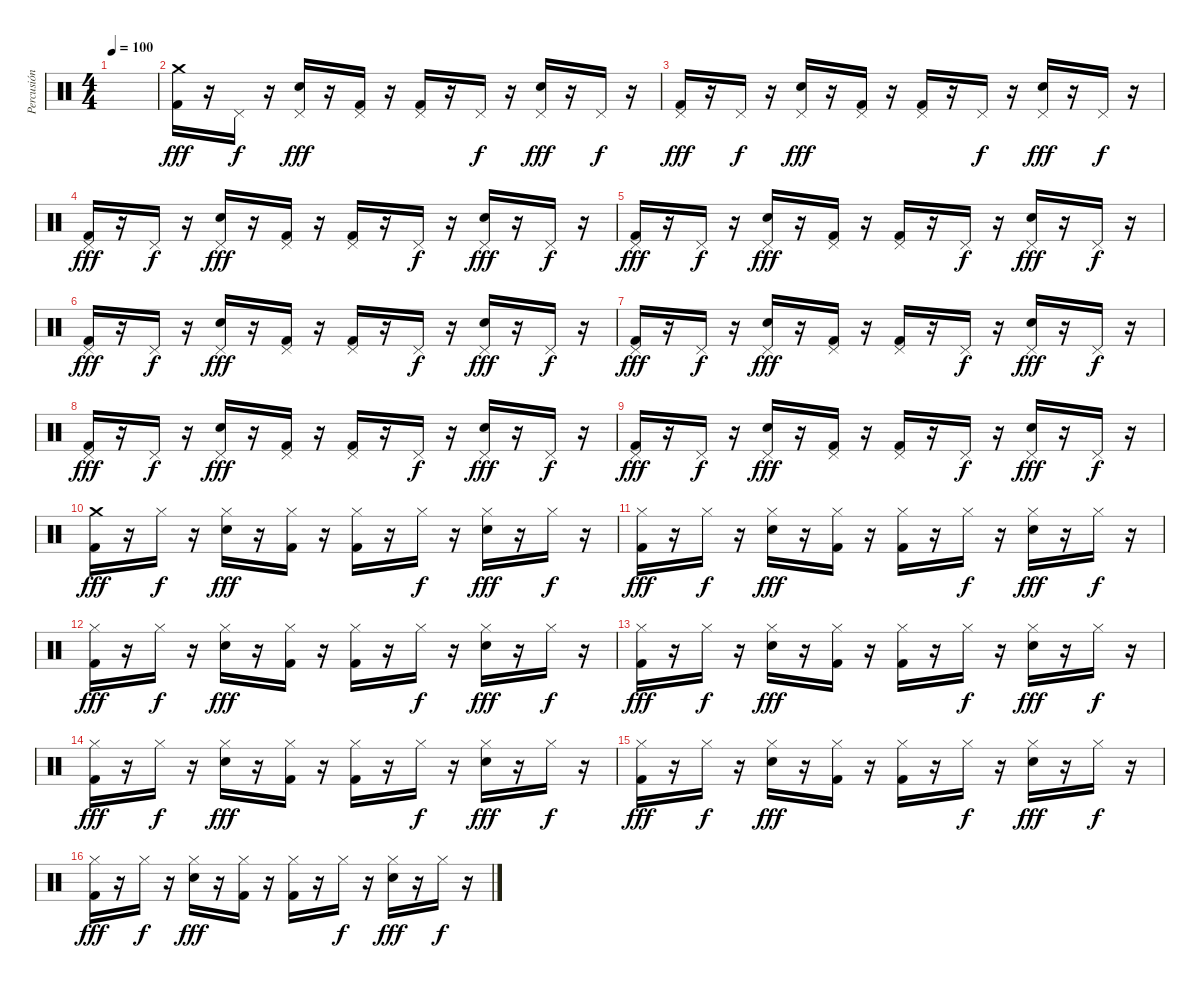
\track ("Percusión" "Percusión") {instrument percussion}
\staff {score}
\articulation defaults
\ts (4 4)
\tempo 100
\clef neutral
\ks c
|
("Crash medium (hit)" "Kick (hit) 2").16{dy fff} r.16 "Pedal Hi-Hat (hit)".16{dy f} r.16 ("Pedal Hi-Hat (hit)" "Electric Snare (hit)").16{dy fff} r.16 ("Pedal Hi-Hat (hit)" "Kick (hit) 2").16 r.16 ("Pedal Hi-Hat (hit)" "Kick (hit) 2").16 r.16 "Pedal Hi-Hat (hit)".16{dy f} r.16 ("Pedal Hi-Hat (hit)" "Electric Snare (hit)").16{dy fff} r.16 "Pedal Hi-Hat (hit)".16{dy f} r.16 |
("Pedal Hi-Hat (hit)" "Kick (hit) 2").16{dy fff} r.16 "Pedal Hi-Hat (hit)".16{dy f} r.16 ("Pedal Hi-Hat (hit)" "Electric Snare (hit)").16{dy fff} r.16 ("Pedal Hi-Hat (hit)" "Kick (hit) 2").16 r.16 ("Pedal Hi-Hat (hit)" "Kick (hit) 2").16 r.16 "Pedal Hi-Hat (hit)".16{dy f} r.16 ("Pedal Hi-Hat (hit)" "Electric Snare (hit)").16{dy fff} r.16 "Pedal Hi-Hat (hit)".16{dy f} r.16 |
("Pedal Hi-Hat (hit)" "Kick (hit) 2").16{dy fff} r.16 "Pedal Hi-Hat (hit)".16{dy f} r.16 ("Pedal Hi-Hat (hit)" "Electric Snare (hit)").16{dy fff} r.16 ("Pedal Hi-Hat (hit)" "Kick (hit) 2").16 r.16 ("Pedal Hi-Hat (hit)" "Kick (hit) 2").16 r.16 "Pedal Hi-Hat (hit)".16{dy f} r.16 ("Pedal Hi-Hat (hit)" "Electric Snare (hit)").16{dy fff} r.16 "Pedal Hi-Hat (hit)".16{dy f} r.16 |
("Pedal Hi-Hat (hit)" "Kick (hit) 2").16{dy fff} r.16 "Pedal Hi-Hat (hit)".16{dy f} r.16 ("Pedal Hi-Hat (hit)" "Electric Snare (hit)").16{dy fff} r.16 ("Pedal Hi-Hat (hit)" "Kick (hit) 2").16 r.16 ("Pedal Hi-Hat (hit)" "Kick (hit) 2").16 r.16 "Pedal Hi-Hat (hit)".16{dy f} r.16 ("Pedal Hi-Hat (hit)" "Electric Snare (hit)").16{dy fff} r.16 "Pedal Hi-Hat (hit)".16{dy f} r.16 |
("Pedal Hi-Hat (hit)" "Kick (hit) 2").16{dy fff} r.16 "Pedal Hi-Hat (hit)".16{dy f} r.16 ("Pedal Hi-Hat (hit)" "Electric Snare (hit)").16{dy fff} r.16 ("Pedal Hi-Hat (hit)" "Kick (hit) 2").16 r.16 ("Pedal Hi-Hat (hit)" "Kick (hit) 2").16 r.16 "Pedal Hi-Hat (hit)".16{dy f} r.16 ("Pedal Hi-Hat (hit)" "Electric Snare (hit)").16{dy fff} r.16 "Pedal Hi-Hat (hit)".16{dy f} r.16 |
("Pedal Hi-Hat (hit)" "Kick (hit) 2").16{dy fff} r.16 "Pedal Hi-Hat (hit)".16{dy f} r.16 ("Pedal Hi-Hat (hit)" "Electric Snare (hit)").16{dy fff} r.16 ("Pedal Hi-Hat (hit)" "Kick (hit) 2").16 r.16 ("Pedal Hi-Hat (hit)" "Kick (hit) 2").16 r.16 "Pedal Hi-Hat (hit)".16{dy f} r.16 ("Pedal Hi-Hat (hit)" "Electric Snare (hit)").16{dy fff} r.16 "Pedal Hi-Hat (hit)".16{dy f} r.16 |
("Pedal Hi-Hat (hit)" "Kick (hit) 2").16{dy fff} r.16 "Pedal Hi-Hat (hit)".16{dy f} r.16 ("Pedal Hi-Hat (hit)" "Electric Snare (hit)").16{dy fff} r.16 ("Pedal Hi-Hat (hit)" "Kick (hit) 2").16 r.16 ("Pedal Hi-Hat (hit)" "Kick (hit) 2").16 r.16 "Pedal Hi-Hat (hit)".16{dy f} r.16 ("Pedal Hi-Hat (hit)" "Electric Snare (hit)").16{dy fff} r.16 "Pedal Hi-Hat (hit)".16{dy f} r.16 |
("Pedal Hi-Hat (hit)" "Kick (hit) 2").16{dy fff} r.16 "Pedal Hi-Hat (hit)".16{dy f} r.16 ("Pedal Hi-Hat (hit)" "Electric Snare (hit)").16{dy fff} r.16 ("Pedal Hi-Hat (hit)" "Kick (hit) 2").16 r.16 ("Pedal Hi-Hat (hit)" "Kick (hit) 2").16 r.16 "Pedal Hi-Hat (hit)".16{dy f} r.16 ("Pedal Hi-Hat (hit)" "Electric Snare (hit)").16{dy fff} r.16 "Pedal Hi-Hat (hit)".16{dy f} r.16 |
("Crash medium (hit)" "Kick (hit) 2").16{dy fff} r.16 "Hi-Hat (closed)".16{dy f} r.16 ("Hi-Hat (closed)" "Electric Snare (hit)").16{dy fff} r.16 ("Hi-Hat (closed)" "Kick (hit) 2").16 r.16 ("Hi-Hat (closed)" "Kick (hit) 2").16 r.16 "Hi-Hat (closed)".16{dy f} r.16 ("Hi-Hat (closed)" "Electric Snare (hit)").16{dy fff} r.16 "Hi-Hat (closed)".16{dy f} r.16 |
("Hi-Hat (closed)" "Kick (hit) 2").16{dy fff} r.16 "Hi-Hat (closed)".16{dy f} r.16 ("Hi-Hat (closed)" "Electric Snare (hit)").16{dy fff} r.16 ("Hi-Hat (closed)" "Kick (hit) 2").16 r.16 ("Hi-Hat (closed)" "Kick (hit) 2").16 r.16 "Hi-Hat (closed)".16{dy f} r.16 ("Hi-Hat (closed)" "Electric Snare (hit)").16{dy fff} r.16 "Hi-Hat (closed)".16{dy f} r.16 |
("Hi-Hat (closed)" "Kick (hit) 2").16{dy fff} r.16 "Hi-Hat (closed)".16{dy f} r.16 ("Hi-Hat (closed)" "Electric Snare (hit)").16{dy fff} r.16 ("Hi-Hat (closed)" "Kick (hit) 2").16 r.16 ("Hi-Hat (closed)" "Kick (hit) 2").16 r.16 "Hi-Hat (closed)".16{dy f} r.16 ("Hi-Hat (closed)" "Electric Snare (hit)").16{dy fff} r.16 "Hi-Hat (closed)".16{dy f} r.16 |
("Hi-Hat (closed)" "Kick (hit) 2").16{dy fff} r.16 "Hi-Hat (closed)".16{dy f} r.16 ("Hi-Hat (closed)" "Electric Snare (hit)").16{dy fff} r.16 ("Hi-Hat (closed)" "Kick (hit) 2").16 r.16 ("Hi-Hat (closed)" "Kick (hit) 2").16 r.16 "Hi-Hat (closed)".16{dy f} r.16 ("Hi-Hat (closed)" "Electric Snare (hit)").16{dy fff} r.16 "Hi-Hat (closed)".16{dy f} r.16 |
("Hi-Hat (closed)" "Kick (hit) 2").16{dy fff} r.16 "Hi-Hat (closed)".16{dy f} r.16 ("Hi-Hat (closed)" "Electric Snare (hit)").16{dy fff} r.16 ("Hi-Hat (closed)" "Kick (hit) 2").16 r.16 ("Hi-Hat (closed)" "Kick (hit) 2").16 r.16 "Hi-Hat (closed)".16{dy f} r.16 ("Hi-Hat (closed)" "Electric Snare (hit)").16{dy fff} r.16 "Hi-Hat (closed)".16{dy f} r.16 |
("Hi-Hat (closed)" "Kick (hit) 2").16{dy fff} r.16 "Hi-Hat (closed)".16{dy f} r.16 ("Hi-Hat (closed)" "Electric Snare (hit)").16{dy fff} r.16 ("Hi-Hat (closed)" "Kick (hit) 2").16 r.16 ("Hi-Hat (closed)" "Kick (hit) 2").16 r.16 "Hi-Hat (closed)".16{dy f} r.16 ("Hi-Hat (closed)" "Electric Snare (hit)").16{dy fff} r.16 "Hi-Hat (closed)".16{dy f} r.16 |
("Hi-Hat (closed)" "Kick (hit) 2").16{dy fff} r.16 "Hi-Hat (closed)".16{dy f} r.16 ("Hi-Hat (closed)" "Electric Snare (hit)").16{dy fff} r.16 ("Hi-Hat (closed)" "Kick (hit) 2").16 r.16 ("Hi-Hat (closed)" "Kick (hit) 2").16 r.16 "Hi-Hat (closed)".16{dy f} r.16 ("Hi-Hat (closed)" "Electric Snare (hit)").16{dy fff} r.16 "Hi-Hat (closed)".16{dy f} r.16
